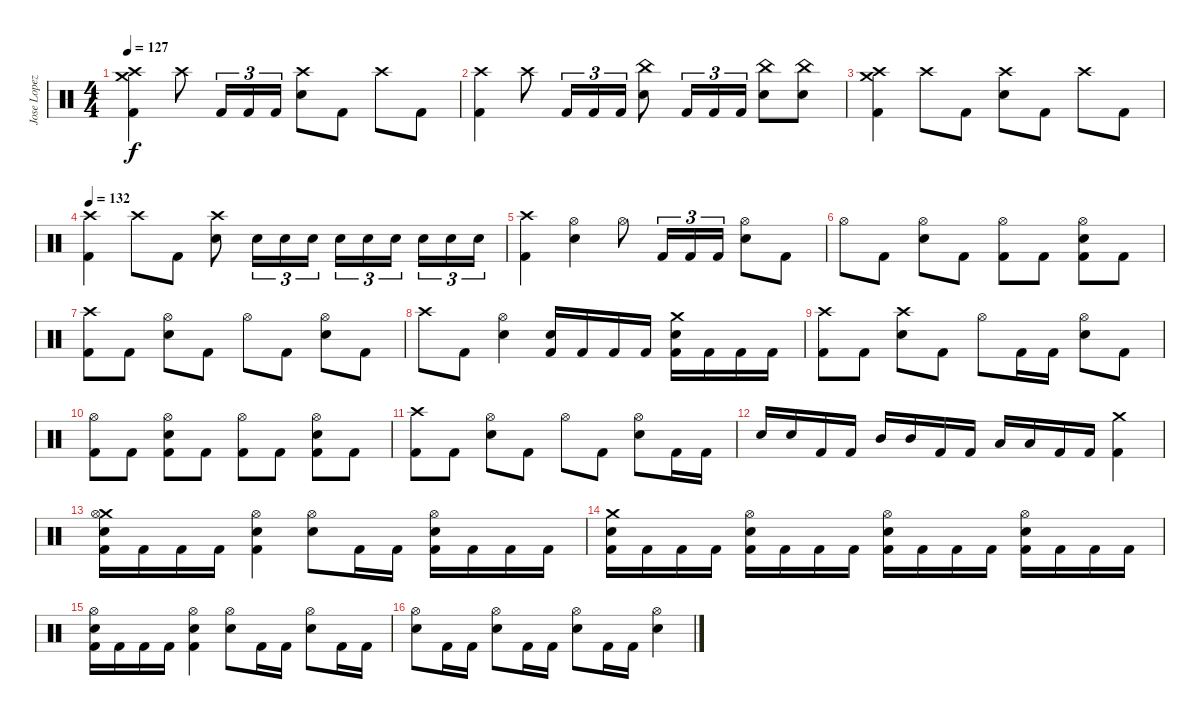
\track ("Jose Lopez" "Jose Lopez") {instrument percussion}
\staff {score}
\articulation defaults
\ts (4 4)
\tempo 127
\clef neutral
\ks c
("Crash high (hit)" "Crash medium (hit)" "Kick (hit) 2").4{dy f} "Crash high (hit)".8 "Kick (hit) 2".16{tu (3 2)} "Kick (hit) 2".16{tu (3 2)} "Kick (hit) 2".16{tu (3 2)} ("Crash high (hit)" "Electric Snare (hit)").8 "Kick (hit) 2".8 "Crash high (hit)".8 "Kick (hit) 2".8 |
("Crash high (hit)" "Kick (hit) 2").4 "Crash high (hit)".8 "Kick (hit) 2".16{tu (3 2)} "Kick (hit) 2".16{tu (3 2)} "Kick (hit) 2".16{tu (3 2)} ("China (hit)" "Electric Snare (hit)").8 "Kick (hit) 2".16{tu (3 2)} "Kick (hit) 2".16{tu (3 2)} "Kick (hit) 2".16{tu (3 2)} ("China (hit)" "Electric Snare (hit)").8 ("China (hit)" "Electric Snare (hit)").8 |
("Crash high (hit)" "Crash medium (hit)" "Kick (hit) 2").4 "Crash high (hit)".8 "Kick (hit) 2".8 ("Crash high (hit)" "Electric Snare (hit)").8 "Kick (hit) 2".8 "Crash high (hit)".8 "Kick (hit) 2".8 |
\tempo 132
("Crash high (hit)" "Kick (hit) 2").4 "Crash high (hit)".8 "Kick (hit) 2".8 ("Crash high (hit)" "Electric Snare (hit)").8 "Electric Snare (hit)".16{tu (3 2)} "Electric Snare (hit)".16{tu (3 2)} "Electric Snare (hit)".16{tu (3 2)} "Electric Snare (hit)".16{tu (3 2)} "Electric Snare (hit)".16{tu (3 2)} "Electric Snare (hit)".16{tu (3 2) beam splitsecondary} "Electric Snare (hit)".16{tu (3 2)} "Electric Snare (hit)".16{tu (3 2)} "Electric Snare (hit)".16{tu (3 2)} |
("Crash high (hit)" "Kick (hit) 2").4 ("Hi-Hat (open)" "Electric Snare (hit)").4 "Hi-Hat (open)".8 "Kick (hit) 2".16{tu (3 2)} "Kick (hit) 2".16{tu (3 2)} "Kick (hit) 2".16{tu (3 2)} ("Hi-Hat (open)" "Electric Snare (hit)").8 "Kick (hit) 2".8 |
"Hi-Hat (open)".8 "Kick (hit) 2".8 ("Hi-Hat (open)" "Electric Snare (hit)").8 "Kick (hit) 2".8 ("Hi-Hat (open)" "Kick (hit) 2").8 "Kick (hit) 2".8 ("Hi-Hat (open)" "Electric Snare (hit)" "Kick (hit) 2").8 "Kick (hit) 2".8 |
("Crash high (hit)" "Kick (hit) 2").8 "Kick (hit) 2".8 ("Hi-Hat (open)" "Electric Snare (hit)").8 "Kick (hit) 2".8 "Hi-Hat (open)".8 "Kick (hit) 2".8 ("Hi-Hat (open)" "Electric Snare (hit)").8 "Kick (hit) 2".8 |
"Crash high (hit)".8 "Kick (hit) 2".8 ("Hi-Hat (open)" "Electric Snare (hit)").4 ("Electric Snare (hit)" "Kick (hit) 2").16 "Kick (hit) 2".16 "Kick (hit) 2".16 "Kick (hit) 2".16 ("Crash medium (hit)" "Electric Snare (hit)" "Kick (hit) 2").16 "Kick (hit) 2".16 "Kick (hit) 2".16 "Kick (hit) 2".16 |
("Crash high (hit)" "Kick (hit) 2").8 "Kick (hit) 2".8 ("Crash high (hit)" "Electric Snare (hit)").8 "Kick (hit) 2".8 "Hi-Hat (open)".8 "Kick (hit) 2".16 "Kick (hit) 2".16 ("Hi-Hat (open)" "Electric Snare (hit)").8 "Kick (hit) 2".8 |
("Hi-Hat (open)" "Kick (hit) 2").8 "Kick (hit) 2".8 ("Hi-Hat (open)" "Electric Snare (hit)" "Kick (hit) 2").8 "Kick (hit) 2".8 ("Hi-Hat (open)" "Kick (hit) 2").8 "Kick (hit) 2".8 ("Hi-Hat (open)" "Electric Snare (hit)" "Kick (hit) 2").8 "Kick (hit) 2".8 |
("Crash high (hit)" "Kick (hit) 2").8 "Kick (hit) 2".8 ("Hi-Hat (open)" "Electric Snare (hit)").8 "Kick (hit) 2".8 "Hi-Hat (open)".8 "Kick (hit) 2".8 ("Hi-Hat (open)" "Electric Snare (hit)").8 "Kick (hit) 2".16 "Kick (hit) 2".16 |
"Electric Snare (hit)".16 "Electric Snare (hit)".16 "Kick (hit) 2".16 "Kick (hit) 2".16 "Mid Tom (hit)".16 "Mid Tom (hit)".16 "Kick (hit) 2".16 "Kick (hit) 2".16 "Low Tom (hit)".16 "Low Tom (hit)".16 "Kick (hit) 2".16 "Kick (hit) 2".16 ("Crash medium (hit)" "Kick (hit) 2").4 |
("Crash medium (hit)" "Hi-Hat (open)" "Electric Snare (hit)" "Kick (hit) 2").16 "Kick (hit) 2".16 "Kick (hit) 2".16 "Kick (hit) 2".16 ("Hi-Hat (open)" "Electric Snare (hit)" "Kick (hit) 2").4 ("Hi-Hat (open)" "Electric Snare (hit)").8 "Kick (hit) 2".16 "Kick (hit) 2".16 ("Hi-Hat (open)" "Electric Snare (hit)" "Kick (hit) 2").16 "Kick (hit) 2".16 "Kick (hit) 2".16 "Kick (hit) 2".16 |
("Crash medium (hit)" "Electric Snare (hit)" "Kick (hit) 2").16 "Kick (hit) 2".16 "Kick (hit) 2".16 "Kick (hit) 2".16 ("Hi-Hat (open)" "Electric Snare (hit)" "Kick (hit) 2").16 "Kick (hit) 2".16 "Kick (hit) 2".16 "Kick (hit) 2".16 ("Hi-Hat (open)" "Electric Snare (hit)" "Kick (hit) 2").16 "Kick (hit) 2".16 "Kick (hit) 2".16 "Kick (hit) 2".16 ("Hi-Hat (open)" "Electric Snare (hit)" "Kick (hit) 2").16 "Kick (hit) 2".16 "Kick (hit) 2".16 "Kick (hit) 2".16 |
("Hi-Hat (open)" "Electric Snare (hit)" "Kick (hit) 2").16 "Kick (hit) 2".16 "Kick (hit) 2".16 "Kick (hit) 2".16 ("Hi-Hat (open)" "Electric Snare (hit)" "Kick (hit) 2").4 ("Hi-Hat (open)" "Electric Snare (hit)").8 "Kick (hit) 2".16 "Kick (hit) 2".16 ("Hi-Hat (open)" "Electric Snare (hit)").8 "Kick (hit) 2".16 "Kick (hit) 2".16 |
("Hi-Hat (open)" "Electric Snare (hit)").8 "Kick (hit) 2".16 "Kick (hit) 2".16 ("Hi-Hat (open)" "Electric Snare (hit)").8 "Kick (hit) 2".16 "Kick (hit) 2".16 ("Hi-Hat (open)" "Electric Snare (hit)").8 "Kick (hit) 2".16 "Kick (hit) 2".16 ("Hi-Hat (open)" "Electric Snare (hit)").4
